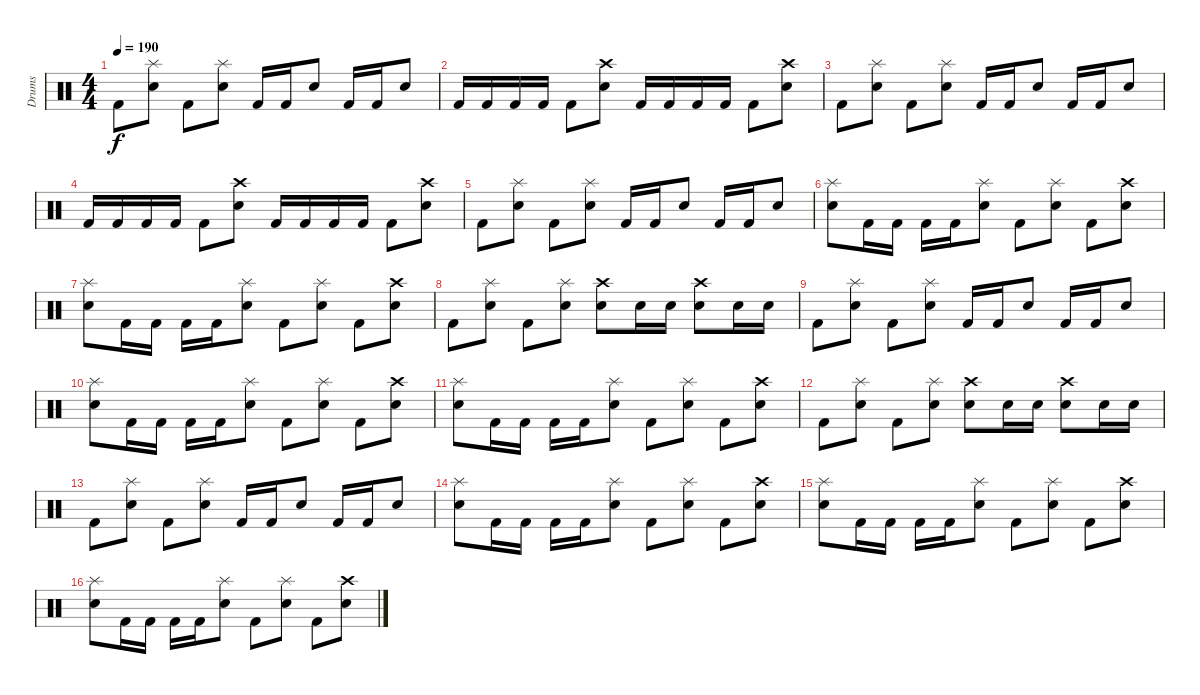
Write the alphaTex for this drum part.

\track ("Drums" "Drums") {instrument percussion}
\staff {score}
\articulation defaults
\ts (4 4)
\tempo 190
\clef neutral
\ks c "Kick (hit) 2".8{dy f}
("Splash (hit)" "Snare (hit) 2").8 "Kick (hit) 2".8 ("Splash (hit)" "Snare (hit) 2").8 "Kick (hit) 2".16 "Kick (hit) 2".16 "Snare (hit) 2".8 "Kick (hit) 2".16 "Kick (hit) 2".16 "Snare (hit) 2".8 |
"Kick (hit) 2".16 "Kick (hit) 2".16 "Kick (hit) 2".16 "Kick (hit) 2".16 "Kick (hit) 2".8 ("Crash high (hit)" "Snare (hit) 2").8 "Kick (hit) 2".16 "Kick (hit) 2".16 "Kick (hit) 2".16 "Kick (hit) 2".16 "Kick (hit) 2".8 ("Crash high (hit)" "Snare (hit) 2").8 |
"Kick (hit) 2".8 ("Splash (hit)" "Snare (hit) 2").8 "Kick (hit) 2".8 ("Splash (hit)" "Snare (hit) 2").8 "Kick (hit) 2".16 "Kick (hit) 2".16 "Snare (hit) 2".8 "Kick (hit) 2".16 "Kick (hit) 2".16 "Snare (hit) 2".8 |
"Kick (hit) 2".16 "Kick (hit) 2".16 "Kick (hit) 2".16 "Kick (hit) 2".16 "Kick (hit) 2".8 ("Crash high (hit)" "Snare (hit) 2").8 "Kick (hit) 2".16 "Kick (hit) 2".16 "Kick (hit) 2".16 "Kick (hit) 2".16 "Kick (hit) 2".8 ("Crash high (hit)" "Snare (hit) 2").8 |
"Kick (hit) 2".8 ("Splash (hit)" "Snare (hit) 2").8 "Kick (hit) 2".8 ("Splash (hit)" "Snare (hit) 2").8 "Kick (hit) 2".16 "Kick (hit) 2".16 "Snare (hit) 2".8 "Kick (hit) 2".16 "Kick (hit) 2".16 "Snare (hit) 2".8 |
("Splash (hit)" "Snare (hit) 2").8 "Kick (hit) 2".16 "Kick (hit) 2".16 "Kick (hit) 2".16 "Kick (hit) 2".16 ("Splash (hit)" "Snare (hit) 2").8 "Kick (hit) 2".8 ("Splash (hit)" "Snare (hit) 2").8 "Kick (hit) 2".8 ("Crash high (hit)" "Snare (hit) 2").8 |
("Splash (hit)" "Snare (hit) 2").8 "Kick (hit) 2".16 "Kick (hit) 2".16 "Kick (hit) 2".16 "Kick (hit) 2".16 ("Splash (hit)" "Snare (hit) 2").8 "Kick (hit) 2".8 ("Splash (hit)" "Snare (hit) 2").8 "Kick (hit) 2".8 ("Crash high (hit)" "Snare (hit) 2").8 |
"Kick (hit) 2".8 ("Splash (hit)" "Snare (hit) 2").8 "Kick (hit) 2".8 ("Splash (hit)" "Snare (hit) 2").8 ("Crash high (hit)" "Snare (hit) 2").8 "Snare (hit) 2".16 "Snare (hit) 2".16 ("Crash high (hit)" "Snare (hit) 2").8 "Snare (hit) 2".16 "Snare (hit) 2".16 |
"Kick (hit) 2".8 ("Splash (hit)" "Snare (hit) 2").8 "Kick (hit) 2".8 ("Splash (hit)" "Snare (hit) 2").8 "Kick (hit) 2".16 "Kick (hit) 2".16 "Snare (hit) 2".8 "Kick (hit) 2".16 "Kick (hit) 2".16 "Snare (hit) 2".8 |
("Splash (hit)" "Snare (hit) 2").8 "Kick (hit) 2".16 "Kick (hit) 2".16 "Kick (hit) 2".16 "Kick (hit) 2".16 ("Splash (hit)" "Snare (hit) 2").8 "Kick (hit) 2".8 ("Splash (hit)" "Snare (hit) 2").8 "Kick (hit) 2".8 ("Crash high (hit)" "Snare (hit) 2").8 |
("Splash (hit)" "Snare (hit) 2").8 "Kick (hit) 2".16 "Kick (hit) 2".16 "Kick (hit) 2".16 "Kick (hit) 2".16 ("Splash (hit)" "Snare (hit) 2").8 "Kick (hit) 2".8 ("Splash (hit)" "Snare (hit) 2").8 "Kick (hit) 2".8 ("Crash high (hit)" "Snare (hit) 2").8 |
"Kick (hit) 2".8 ("Splash (hit)" "Snare (hit) 2").8 "Kick (hit) 2".8 ("Splash (hit)" "Snare (hit) 2").8 ("Crash high (hit)" "Snare (hit) 2").8 "Snare (hit) 2".16 "Snare (hit) 2".16 ("Crash high (hit)" "Snare (hit) 2").8 "Snare (hit) 2".16 "Snare (hit) 2".16 |
"Kick (hit) 2".8 ("Splash (hit)" "Snare (hit) 2").8 "Kick (hit) 2".8 ("Splash (hit)" "Snare (hit) 2").8 "Kick (hit) 2".16 "Kick (hit) 2".16 "Snare (hit) 2".8 "Kick (hit) 2".16 "Kick (hit) 2".16 "Snare (hit) 2".8 |
("Splash (hit)" "Snare (hit) 2").8 "Kick (hit) 2".16 "Kick (hit) 2".16 "Kick (hit) 2".16 "Kick (hit) 2".16 ("Splash (hit)" "Snare (hit) 2").8 "Kick (hit) 2".8 ("Splash (hit)" "Snare (hit) 2").8 "Kick (hit) 2".8 ("Crash high (hit)" "Snare (hit) 2").8 |
("Splash (hit)" "Snare (hit) 2").8 "Kick (hit) 2".16 "Kick (hit) 2".16 "Kick (hit) 2".16 "Kick (hit) 2".16 ("Splash (hit)" "Snare (hit) 2").8 "Kick (hit) 2".8 ("Splash (hit)" "Snare (hit) 2").8 "Kick (hit) 2".8 ("Crash high (hit)" "Snare (hit) 2").8 |
("Splash (hit)" "Snare (hit) 2").8 "Kick (hit) 2".16 "Kick (hit) 2".16 "Kick (hit) 2".16 "Kick (hit) 2".16 ("Splash (hit)" "Snare (hit) 2").8 "Kick (hit) 2".8 ("Splash (hit)" "Snare (hit) 2").8 "Kick (hit) 2".8 ("Crash high (hit)" "Snare (hit) 2").8
